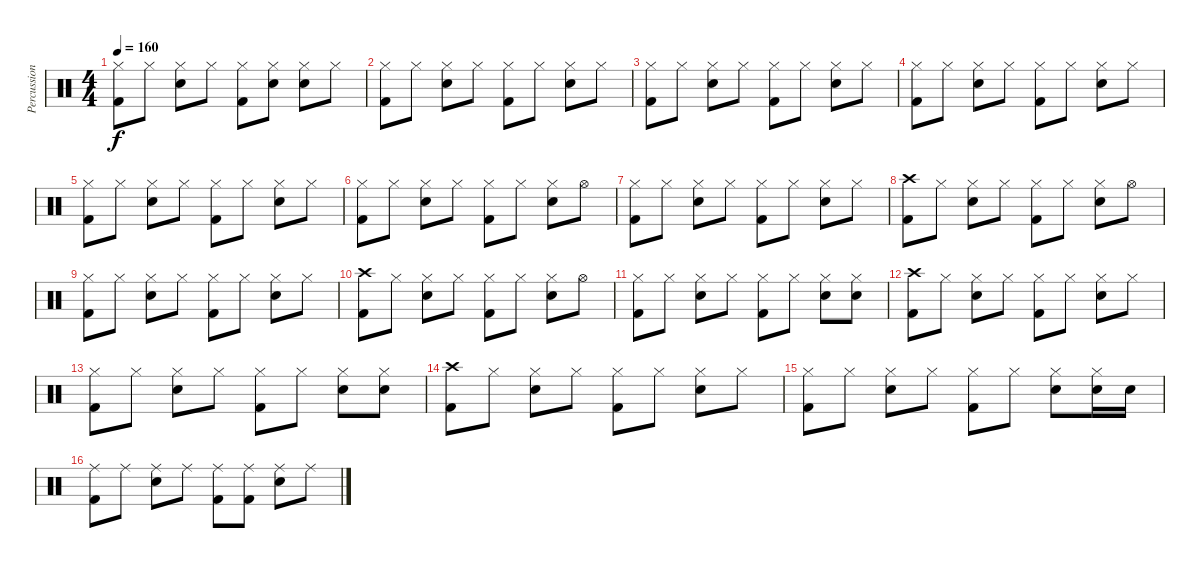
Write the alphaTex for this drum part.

\track ("Percussions" "Percussion") {instrument percussion}
\staff {score}
\articulation defaults
\ts (4 4)
\tempo 160
\clef neutral
\ks c
("Kick (hit) 2" "Hi-Hat (closed)").8{dy f} "Hi-Hat (closed)".8 ("Hi-Hat (closed)" "Snare (hit) 2").8 "Hi-Hat (closed)".8 ("Hi-Hat (closed)" "Kick (hit) 2").8 ("Snare (hit) 2" "Hi-Hat (closed)").8 ("Snare (hit) 2" "Hi-Hat (closed)").8 "Hi-Hat (closed)".8 |
("Kick (hit) 2" "Hi-Hat (closed)").8 "Hi-Hat (closed)".8 ("Snare (hit) 2" "Hi-Hat (closed)").8 "Hi-Hat (closed)".8 ("Kick (hit) 2" "Hi-Hat (closed)").8 "Hi-Hat (closed)".8 ("Snare (hit) 2" "Hi-Hat (closed)").8 "Hi-Hat (closed)".8 |
("Kick (hit) 2" "Hi-Hat (closed)").8 "Hi-Hat (closed)".8 ("Snare (hit) 2" "Hi-Hat (closed)").8 "Hi-Hat (closed)".8 ("Kick (hit) 2" "Hi-Hat (closed)").8 "Hi-Hat (closed)".8 ("Snare (hit) 2" "Hi-Hat (closed)").8 "Hi-Hat (closed)".8 |
("Kick (hit) 2" "Hi-Hat (closed)").8 "Hi-Hat (closed)".8 ("Snare (hit) 2" "Hi-Hat (closed)").8 "Hi-Hat (closed)".8 ("Kick (hit) 2" "Hi-Hat (closed)").8 "Hi-Hat (closed)".8 ("Snare (hit) 2" "Hi-Hat (closed)").8 "Hi-Hat (closed)".8 |
("Kick (hit) 2" "Hi-Hat (closed)").8 "Hi-Hat (closed)".8 ("Snare (hit) 2" "Hi-Hat (closed)").8 "Hi-Hat (closed)".8 ("Kick (hit) 2" "Hi-Hat (closed)").8 "Hi-Hat (closed)".8 ("Snare (hit) 2" "Hi-Hat (closed)").8 "Hi-Hat (closed)".8 |
("Kick (hit) 2" "Hi-Hat (closed)").8 "Hi-Hat (closed)".8 ("Snare (hit) 2" "Hi-Hat (closed)").8 "Hi-Hat (closed)".8 ("Kick (hit) 2" "Hi-Hat (closed)").8 "Hi-Hat (closed)".8 ("Snare (hit) 2" "Hi-Hat (closed)").8 "Hi-Hat (open)".8 |
("Kick (hit) 2" "Hi-Hat (closed)").8 "Hi-Hat (closed)".8 ("Snare (hit) 2" "Hi-Hat (closed)").8 "Hi-Hat (closed)".8 ("Kick (hit) 2" "Hi-Hat (closed)").8 "Hi-Hat (closed)".8 ("Snare (hit) 2" "Hi-Hat (closed)").8 "Hi-Hat (closed)".8 |
("Crash high (hit)" "Kick (hit) 2").8 "Hi-Hat (closed)".8 ("Snare (hit) 2" "Hi-Hat (closed)").8 "Hi-Hat (closed)".8 ("Kick (hit) 2" "Hi-Hat (closed)").8 "Hi-Hat (closed)".8 ("Snare (hit) 2" "Hi-Hat (closed)").8 "Hi-Hat (open)".8 |
("Kick (hit) 2" "Hi-Hat (closed)").8 "Hi-Hat (closed)".8 ("Snare (hit) 2" "Hi-Hat (closed)").8 "Hi-Hat (closed)".8 ("Kick (hit) 2" "Hi-Hat (closed)").8 "Hi-Hat (closed)".8 ("Snare (hit) 2" "Hi-Hat (closed)").8 "Hi-Hat (closed)".8 |
("Crash high (hit)" "Kick (hit) 2").8 "Hi-Hat (closed)".8 ("Snare (hit) 2" "Hi-Hat (closed)").8 "Hi-Hat (closed)".8 ("Kick (hit) 2" "Hi-Hat (closed)").8 "Hi-Hat (closed)".8 ("Snare (hit) 2" "Hi-Hat (closed)").8 "Hi-Hat (open)".8 |
("Kick (hit) 2" "Hi-Hat (closed)").8 "Hi-Hat (closed)".8 ("Snare (hit) 2" "Hi-Hat (closed)").8 "Hi-Hat (closed)".8 ("Kick (hit) 2" "Hi-Hat (closed)").8 "Hi-Hat (closed)".8 ("Snare (hit) 2" "Hi-Hat (closed)").8 ("Snare (hit) 2" "Hi-Hat (closed)").8 |
("Crash high (hit)" "Kick (hit) 2").8 "Hi-Hat (closed)".8 ("Snare (hit) 2" "Hi-Hat (closed)").8 "Hi-Hat (closed)".8 ("Kick (hit) 2" "Hi-Hat (closed)").8 "Hi-Hat (closed)".8 ("Snare (hit) 2" "Hi-Hat (closed)").8 "Hi-Hat (closed)".8 |
("Kick (hit) 2" "Hi-Hat (closed)").8 "Hi-Hat (closed)".8 ("Snare (hit) 2" "Hi-Hat (closed)").8 "Hi-Hat (closed)".8 ("Kick (hit) 2" "Hi-Hat (closed)").8 "Hi-Hat (closed)".8 ("Snare (hit) 2" "Hi-Hat (closed)").8 ("Snare (hit) 2" "Hi-Hat (closed)").8 |
("Crash high (hit)" "Kick (hit) 2").8 "Hi-Hat (closed)".8 ("Snare (hit) 2" "Hi-Hat (closed)").8 "Hi-Hat (closed)".8 ("Kick (hit) 2" "Hi-Hat (closed)").8 "Hi-Hat (closed)".8 ("Snare (hit) 2" "Hi-Hat (closed)").8 "Hi-Hat (closed)".8 |
("Kick (hit) 2" "Hi-Hat (closed)").8 "Hi-Hat (closed)".8 ("Snare (hit) 2" "Hi-Hat (closed)").8 "Hi-Hat (closed)".8 ("Kick (hit) 2" "Hi-Hat (closed)").8 "Hi-Hat (closed)".8 ("Snare (hit) 2" "Hi-Hat (closed)").8 ("Snare (hit) 2" "Hi-Hat (closed)").16 "Snare (hit) 2".16 |
("Ride (middle)" "Kick (hit) 2").8 "Ride (middle)".8 ("Ride (middle)" "Snare (hit) 2").8 "Ride (middle)".8 ("Ride (middle)" "Kick (hit) 2").8 ("Ride (middle)" "Kick (hit) 2").8 ("Ride (middle)" "Snare (hit) 2").8 "Ride (middle)".8
